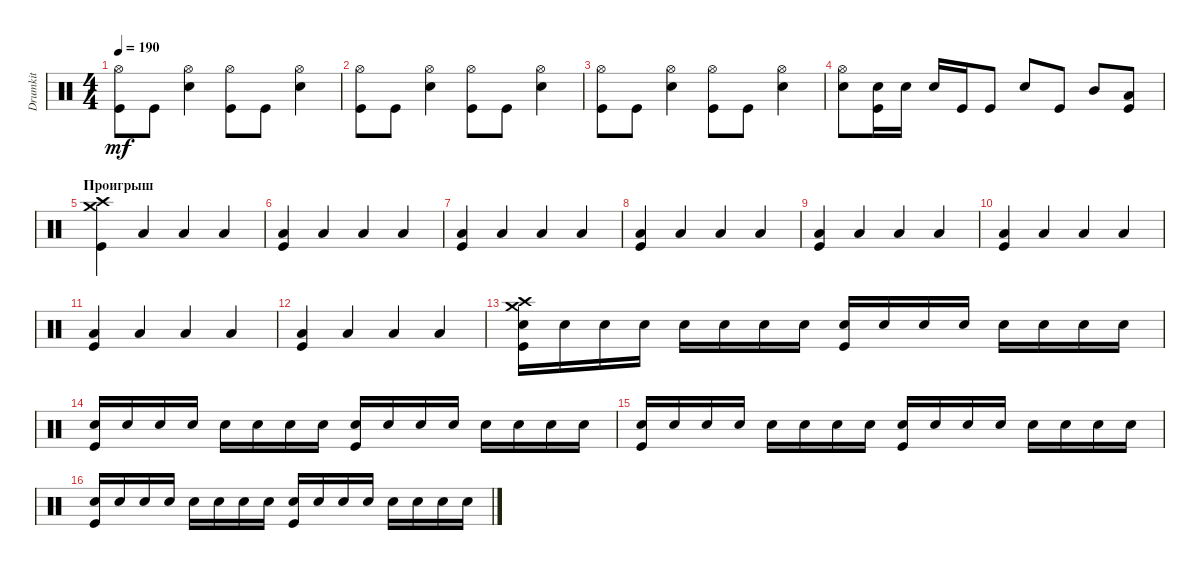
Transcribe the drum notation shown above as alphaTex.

\track ("Drumkit" "Drumkit") {instrument percussion}
\staff {score}
\articulation defaults
\ts (4 4)
\tempo 190
\clef neutral
\ks c
("Kick (hit)" "Hi-Hat (open)").8{dy mf} "Kick (hit)".8 ("Snare (hit) 2" "Hi-Hat (open)").4 ("Kick (hit)" "Hi-Hat (open)").8 "Kick (hit)".8 ("Snare (hit) 2" "Hi-Hat (open)").4 |
("Kick (hit)" "Hi-Hat (open)").8 "Kick (hit)".8 ("Snare (hit) 2" "Hi-Hat (open)").4 ("Kick (hit)" "Hi-Hat (open)").8 "Kick (hit)".8 ("Snare (hit) 2" "Hi-Hat (open)").4 |
("Kick (hit)" "Hi-Hat (open)").8 "Kick (hit)".8 ("Snare (hit) 2" "Hi-Hat (open)").4 ("Kick (hit)" "Hi-Hat (open)").8 "Kick (hit)".8 ("Snare (hit) 2" "Hi-Hat (open)").4 |
("Snare (hit) 2" "Hi-Hat (open)").8 ("Kick (hit)" "Snare (hit) 2").16 "Snare (hit) 2".16 "Snare (hit) 2".16 "Kick (hit)".16 "Kick (hit)".8 "Snare (hit) 2".8 "Kick (hit)".8 "Mid Tom (hit)".8 ("Kick (hit)" "Low Tom (hit)").8 |
\section ("" "Проигрыш")
("Crash high (hit)" "Crash medium (hit)" "Kick (hit)").4 "Low Floor Tom (hit)".4 "Low Floor Tom (hit)".4 "Low Floor Tom (hit)".4 |
("Kick (hit)" "Low Floor Tom (hit)").4 "Low Floor Tom (hit)".4 "Low Floor Tom (hit)".4 "Low Floor Tom (hit)".4 |
("Kick (hit)" "Low Floor Tom (hit)").4 "Low Floor Tom (hit)".4 "Low Floor Tom (hit)".4 "Low Floor Tom (hit)".4 |
("Kick (hit)" "Low Floor Tom (hit)").4 "Low Floor Tom (hit)".4 "Low Floor Tom (hit)".4 "Low Floor Tom (hit)".4 |
("Kick (hit)" "Low Floor Tom (hit)").4 "Low Floor Tom (hit)".4 "Low Floor Tom (hit)".4 "Low Floor Tom (hit)".4 |
("Kick (hit)" "Low Floor Tom (hit)").4 "Low Floor Tom (hit)".4 "Low Floor Tom (hit)".4 "Low Floor Tom (hit)".4 |
("Kick (hit)" "Low Floor Tom (hit)").4 "Low Floor Tom (hit)".4 "Low Floor Tom (hit)".4 "Low Floor Tom (hit)".4 |
("Kick (hit)" "Low Floor Tom (hit)").4 "Low Floor Tom (hit)".4 "Low Floor Tom (hit)".4 "Low Floor Tom (hit)".4 |
("Crash high (hit)" "Crash medium (hit)" "Kick (hit)" "Snare (hit) 2").16 "Snare (hit) 2".16 "Snare (hit) 2".16 "Snare (hit) 2".16 "Snare (hit) 2".16 "Snare (hit) 2".16 "Snare (hit) 2".16 "Snare (hit) 2".16 ("Snare (hit) 2" "Kick (hit)").16 "Snare (hit) 2".16 "Snare (hit) 2".16 "Snare (hit) 2".16 "Snare (hit) 2".16 "Snare (hit) 2".16 "Snare (hit) 2".16 "Snare (hit) 2".16 |
("Snare (hit) 2" "Kick (hit)").16 "Snare (hit) 2".16 "Snare (hit) 2".16 "Snare (hit) 2".16 "Snare (hit) 2".16 "Snare (hit) 2".16 "Snare (hit) 2".16 "Snare (hit) 2".16 ("Snare (hit) 2" "Kick (hit)").16 "Snare (hit) 2".16 "Snare (hit) 2".16 "Snare (hit) 2".16 "Snare (hit) 2".16 "Snare (hit) 2".16 "Snare (hit) 2".16 "Snare (hit) 2".16 |
("Snare (hit) 2" "Kick (hit)").16 "Snare (hit) 2".16 "Snare (hit) 2".16 "Snare (hit) 2".16 "Snare (hit) 2".16 "Snare (hit) 2".16 "Snare (hit) 2".16 "Snare (hit) 2".16 ("Snare (hit) 2" "Kick (hit)").16 "Snare (hit) 2".16 "Snare (hit) 2".16 "Snare (hit) 2".16 "Snare (hit) 2".16 "Snare (hit) 2".16 "Snare (hit) 2".16 "Snare (hit) 2".16 |
("Snare (hit) 2" "Kick (hit)").16 "Snare (hit) 2".16 "Snare (hit) 2".16 "Snare (hit) 2".16 "Snare (hit) 2".16 "Snare (hit) 2".16 "Snare (hit) 2".16 "Snare (hit) 2".16 ("Snare (hit) 2" "Kick (hit)").16 "Snare (hit) 2".16 "Snare (hit) 2".16 "Snare (hit) 2".16 "Snare (hit) 2".16 "Snare (hit) 2".16 "Snare (hit) 2".16 "Snare (hit) 2".16
